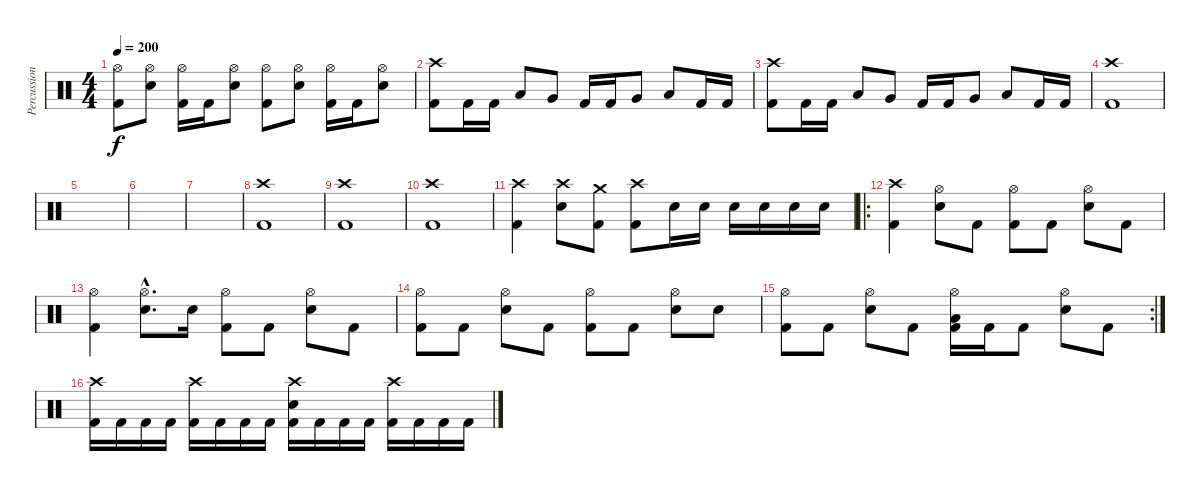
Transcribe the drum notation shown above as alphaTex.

\track ("Percussions" "Percussion") {instrument percussion}
\staff {score}
\articulation defaults
\ts (4 4)
\tempo 200
\clef neutral
\ks c
("Hi-Hat (open)" "Kick (hit) 2").8{dy f} ("Hi-Hat (open)" "Snare (hit) 2").8 ("Hi-Hat (open)" "Kick (hit) 2").16 "Kick (hit) 2".16 ("Hi-Hat (open)" "Snare (hit) 2").8 ("Hi-Hat (open)" "Kick (hit) 2").8 ("Hi-Hat (open)" "Snare (hit) 2").8 ("Hi-Hat (open)" "Kick (hit) 2").16 "Kick (hit) 2".16 ("Hi-Hat (open)" "Snare (hit) 2").8 |
("Crash high (hit)" "Kick (hit) 2").8 "Kick (hit) 2".16 "Kick (hit) 2".16 "Low Tom (hit)".8 "Very Low Tom (hit)".8 "Kick (hit) 2".16 "Kick (hit) 2".16 "Very Low Tom (hit)".8 "Low Floor Tom (hit)".8 "Kick (hit) 2".16 "Kick (hit) 2".16 |
("Crash high (hit)" "Kick (hit) 2").8 "Kick (hit) 2".16 "Kick (hit) 2".16 "Low Tom (hit)".8 "Very Low Tom (hit)".8 "Kick (hit) 2".16 "Kick (hit) 2".16 "Very Low Tom (hit)".8 "Low Floor Tom (hit)".8 "Kick (hit) 2".16 "Kick (hit) 2".16 |
("Crash high (hit)" "Kick (hit) 2").1 |
|
|
|
("Crash high (hit)" "Kick (hit) 2").1 |
("Crash high (hit)" "Kick (hit) 2").1 |
("Crash high (hit)" "Kick (hit) 2").1 |
("Crash high (hit)" "Kick (hit) 2").4 ("Crash high (hit)" "Snare (hit) 2").8 ("Crash medium (hit)" "Kick (hit) 2").8 ("Crash high (hit)" "Kick (hit) 2").8 "Snare (hit) 2".16 "Snare (hit) 2".16 "Snare (hit) 2".16 "Snare (hit) 2".16 "Snare (hit) 2".16 "Snare (hit) 2".16 |
\ro
("Crash high (hit)" "Kick (hit) 2").4 ("Hi-Hat (open)" "Snare (hit) 2").8 "Kick (hit) 2".8 ("Hi-Hat (open)" "Kick (hit) 2").8 "Kick (hit) 2".8 ("Hi-Hat (open)" "Snare (hit) 2").8 "Kick (hit) 2".8 |
("Hi-Hat (open)" "Kick (hit) 2").4 ("Hi-Hat (open)"{hac} "Snare (hit) 2"{hac}).8{d} "Snare (hit) 2".16 ("Hi-Hat (open)" "Kick (hit) 2").8 "Kick (hit) 2".8 ("Hi-Hat (open)" "Snare (hit) 2").8 "Kick (hit) 2".8 |
("Hi-Hat (open)" "Kick (hit) 2").8 "Kick (hit) 2".8 ("Hi-Hat (open)" "Snare (hit) 2").8 "Kick (hit) 2".8 ("Hi-Hat (open)" "Kick (hit) 2").8 "Kick (hit) 2".8 ("Hi-Hat (open)" "Snare (hit) 2").8 "Snare (hit) 2".8 |
\rc 2
("Hi-Hat (open)" "Kick (hit) 2").8 "Kick (hit) 2".8 ("Hi-Hat (open)" "Snare (hit) 2").8 "Kick (hit) 2".8 ("Hi-Hat (open)" "Low Tom (hit)" "Kick (hit) 2").16 "Kick (hit) 2".16 "Kick (hit) 2".8 ("Hi-Hat (open)" "Snare (hit) 2").8 "Kick (hit) 2".8 |
("Crash high (hit)" "Kick (hit) 2").16 "Kick (hit) 2".16 "Kick (hit) 2".16 "Kick (hit) 2".16 ("Crash high (hit)" "Kick (hit) 2").16 "Kick (hit) 2".16 "Kick (hit) 2".16 "Kick (hit) 2".16 ("Crash high (hit)" "Snare (hit) 2" "Kick (hit) 2").16 "Kick (hit) 2".16 "Kick (hit) 2".16 "Kick (hit) 2".16 ("Crash high (hit)" "Kick (hit) 2").16 "Kick (hit) 2".16 "Kick (hit) 2".16 "Kick (hit) 2".16
